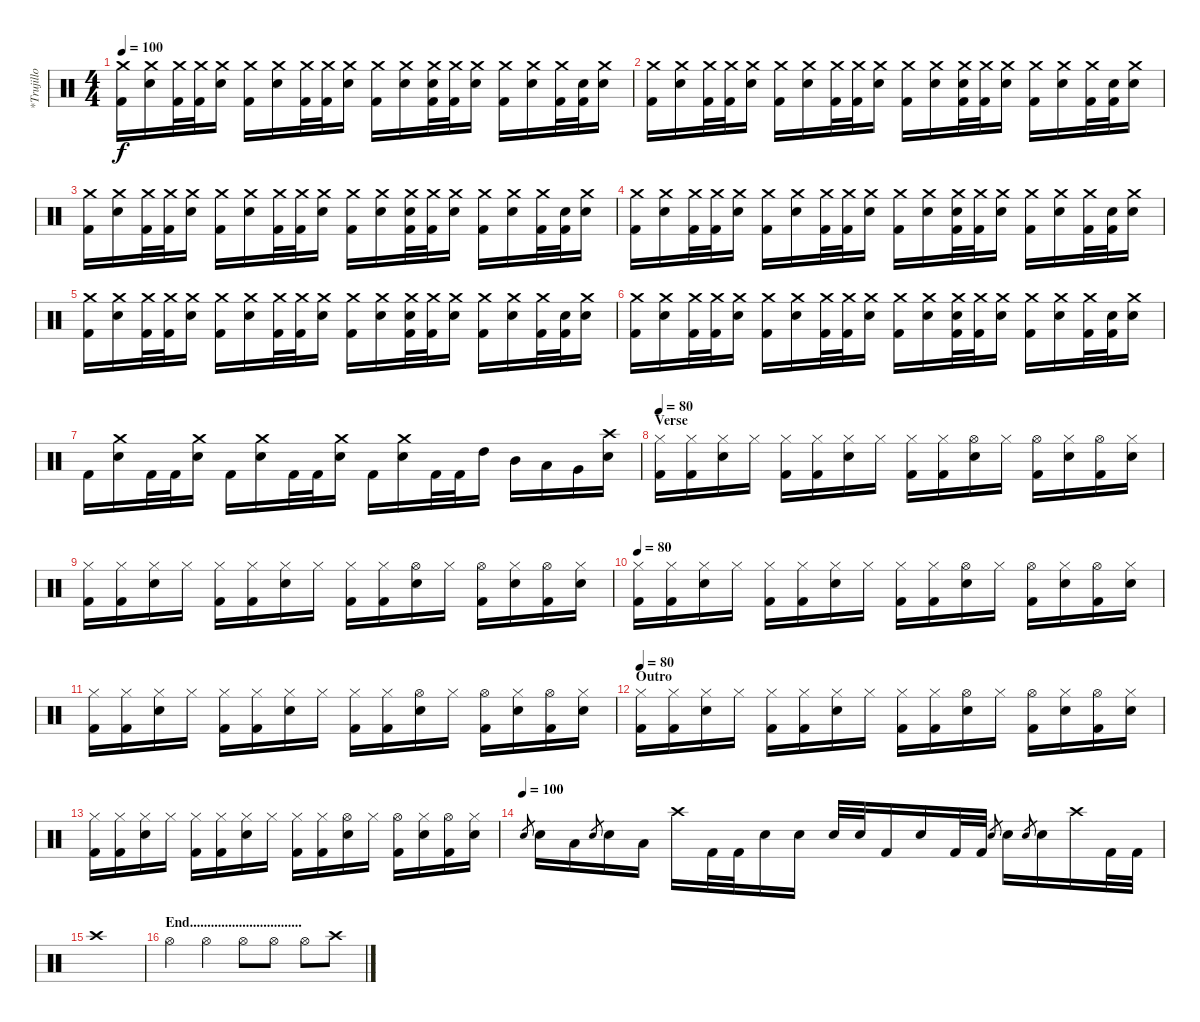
\track ("*Trujillo" "*Trujillo") {instrument percussion}
\staff {score}
\articulation defaults
\ts (4 4)
\tempo 100
\clef neutral
\ks c
("Crash medium (hit)"{x} "Kick (hit) 2").16{dy f} ("Crash medium (hit)" "Electric Snare (hit)").16 ("Crash medium (hit)"{x} "Kick (hit) 2").32 ("Crash medium (hit)"{x} "Kick (hit) 2").32 ("Crash medium (hit)" "Electric Snare (hit)").16 ("Crash medium (hit)"{x} "Kick (hit) 2").16 ("Crash medium (hit)" "Electric Snare (hit)").16 ("Crash medium (hit)"{x} "Kick (hit) 2").32 ("Crash medium (hit)"{x} "Kick (hit) 2").32 ("Crash medium (hit)" "Electric Snare (hit)").16 ("Crash medium (hit)"{x} "Kick (hit) 2").16 ("Crash medium (hit)" "Electric Snare (hit)").16 ("Snare (hit)"{x} "Crash medium (hit)"{x} "Kick (hit) 2").32 ("Crash medium (hit)"{x} "Kick (hit) 2").32 ("Crash medium (hit)" "Electric Snare (hit)").16 ("Crash medium (hit)"{x} "Kick (hit) 2").16 ("Crash medium (hit)" "Electric Snare (hit)").16 ("Crash medium (hit)"{x} "Kick (hit) 2").32 ("Snare (hit)"{x} "Kick (hit) 2").32 ("Crash medium (hit)" "Electric Snare (hit)").16 |
("Crash medium (hit)"{x} "Kick (hit) 2").16 ("Crash medium (hit)" "Electric Snare (hit)").16 ("Crash medium (hit)"{x} "Kick (hit) 2").32 ("Crash medium (hit)"{x} "Kick (hit) 2").32 ("Crash medium (hit)" "Electric Snare (hit)").16 ("Crash medium (hit)"{x} "Kick (hit) 2").16 ("Crash medium (hit)" "Electric Snare (hit)").16 ("Crash medium (hit)"{x} "Kick (hit) 2").32 ("Crash medium (hit)"{x} "Kick (hit) 2").32 ("Crash medium (hit)" "Electric Snare (hit)").16 ("Crash medium (hit)"{x} "Kick (hit) 2").16 ("Crash medium (hit)" "Electric Snare (hit)").16 ("Snare (hit)"{x} "Crash medium (hit)"{x} "Kick (hit) 2").32 ("Crash medium (hit)"{x} "Kick (hit) 2").32 ("Crash medium (hit)" "Electric Snare (hit)").16 ("Crash medium (hit)"{x} "Kick (hit) 2").16 ("Crash medium (hit)" "Electric Snare (hit)").16 ("Crash medium (hit)"{x} "Kick (hit) 2").32 ("Snare (hit)"{x} "Kick (hit) 2").32 ("Crash medium (hit)" "Electric Snare (hit)").16 |
("Crash medium (hit)"{x} "Kick (hit) 2").16 ("Crash medium (hit)" "Electric Snare (hit)").16 ("Crash medium (hit)"{x} "Kick (hit) 2").32 ("Crash medium (hit)"{x} "Kick (hit) 2").32 ("Crash medium (hit)" "Electric Snare (hit)").16 ("Crash medium (hit)"{x} "Kick (hit) 2").16 ("Crash medium (hit)" "Electric Snare (hit)").16 ("Crash medium (hit)"{x} "Kick (hit) 2").32 ("Crash medium (hit)"{x} "Kick (hit) 2").32 ("Crash medium (hit)" "Electric Snare (hit)").16 ("Crash medium (hit)"{x} "Kick (hit) 2").16 ("Crash medium (hit)" "Electric Snare (hit)").16 ("Snare (hit)"{x} "Crash medium (hit)"{x} "Kick (hit) 2").32 ("Crash medium (hit)"{x} "Kick (hit) 2").32 ("Crash medium (hit)" "Electric Snare (hit)").16 ("Crash medium (hit)"{x} "Kick (hit) 2").16 ("Crash medium (hit)" "Electric Snare (hit)").16 ("Crash medium (hit)"{x} "Kick (hit) 2").32 ("Snare (hit)"{x} "Kick (hit) 2").32 ("Crash medium (hit)" "Electric Snare (hit)").16 |
("Crash medium (hit)"{x} "Kick (hit) 2").16 ("Crash medium (hit)" "Electric Snare (hit)").16 ("Crash medium (hit)"{x} "Kick (hit) 2").32 ("Crash medium (hit)"{x} "Kick (hit) 2").32 ("Crash medium (hit)" "Electric Snare (hit)").16 ("Crash medium (hit)"{x} "Kick (hit) 2").16 ("Crash medium (hit)" "Electric Snare (hit)").16 ("Crash medium (hit)"{x} "Kick (hit) 2").32 ("Crash medium (hit)"{x} "Kick (hit) 2").32 ("Crash medium (hit)" "Electric Snare (hit)").16 ("Crash medium (hit)"{x} "Kick (hit) 2").16 ("Crash medium (hit)" "Electric Snare (hit)").16 ("Snare (hit)"{x} "Crash medium (hit)"{x} "Kick (hit) 2").32 ("Crash medium (hit)"{x} "Kick (hit) 2").32 ("Crash medium (hit)" "Electric Snare (hit)").16 ("Crash medium (hit)"{x} "Kick (hit) 2").16 ("Crash medium (hit)" "Electric Snare (hit)").16 ("Crash medium (hit)"{x} "Kick (hit) 2").32 ("Snare (hit)"{x} "Kick (hit) 2").32 ("Crash medium (hit)" "Electric Snare (hit)").16 |
("Crash medium (hit)"{x} "Kick (hit) 2").16 ("Crash medium (hit)" "Electric Snare (hit)").16 ("Crash medium (hit)"{x} "Kick (hit) 2").32 ("Crash medium (hit)"{x} "Kick (hit) 2").32 ("Crash medium (hit)" "Electric Snare (hit)").16 ("Crash medium (hit)"{x} "Kick (hit) 2").16 ("Crash medium (hit)" "Electric Snare (hit)").16 ("Crash medium (hit)"{x} "Kick (hit) 2").32 ("Crash medium (hit)"{x} "Kick (hit) 2").32 ("Crash medium (hit)" "Electric Snare (hit)").16 ("Crash medium (hit)"{x} "Kick (hit) 2").16 ("Crash medium (hit)" "Electric Snare (hit)").16 ("Snare (hit)"{x} "Crash medium (hit)"{x} "Kick (hit) 2").32 ("Crash medium (hit)"{x} "Kick (hit) 2").32 ("Crash medium (hit)" "Electric Snare (hit)").16 ("Crash medium (hit)"{x} "Kick (hit) 2").16 ("Crash medium (hit)" "Electric Snare (hit)").16 ("Crash medium (hit)"{x} "Kick (hit) 2").32 ("Snare (hit)"{x} "Kick (hit) 2").32 ("Crash medium (hit)" "Electric Snare (hit)").16 |
("Crash medium (hit)"{x} "Kick (hit) 2").16 ("Crash medium (hit)" "Electric Snare (hit)").16 ("Crash medium (hit)"{x} "Kick (hit) 2").32 ("Crash medium (hit)"{x} "Kick (hit) 2").32 ("Crash medium (hit)" "Electric Snare (hit)").16 ("Crash medium (hit)"{x} "Kick (hit) 2").16 ("Crash medium (hit)" "Electric Snare (hit)").16 ("Crash medium (hit)"{x} "Kick (hit) 2").32 ("Crash medium (hit)"{x} "Kick (hit) 2").32 ("Crash medium (hit)" "Electric Snare (hit)").16 ("Crash medium (hit)"{x} "Kick (hit) 2").16 ("Crash medium (hit)" "Electric Snare (hit)").16 ("Snare (hit)"{x} "Crash medium (hit)"{x} "Kick (hit) 2").32 ("Crash medium (hit)"{x} "Kick (hit) 2").32 ("Crash medium (hit)" "Electric Snare (hit)").16 ("Crash medium (hit)"{x} "Kick (hit) 2").16 ("Crash medium (hit)" "Electric Snare (hit)").16 ("Crash medium (hit)"{x} "Kick (hit) 2").32 ("Snare (hit)"{x} "Kick (hit) 2").32 ("Crash medium (hit)" "Electric Snare (hit)").16 |
"Kick (hit) 2".16 ("Crash medium (hit)" "Electric Snare (hit)").16 "Kick (hit) 2".32 "Kick (hit) 2".32 ("Crash medium (hit)" "Electric Snare (hit)").16 "Kick (hit) 2".16 ("Crash medium (hit)" "Electric Snare (hit)").16 "Kick (hit) 2".32 "Kick (hit) 2".32 ("Crash medium (hit)" "Electric Snare (hit)").16 "Kick (hit) 2".16 ("Crash medium (hit)" "Electric Snare (hit)").16 "Kick (hit) 2".32 "Kick (hit) 2".32 "High Tom (hit)".16 "Mid Tom (hit)".16 "Low Tom (hit)".16 "Very Low Tom (hit)".16 ("Crash high (hit)" "Electric Snare (hit)").16 |
\section ("" "Verse")
\tempo 80
("Hi-Hat (closed)" "Kick (hit) 2").16 ("Hi-Hat (closed)" "Kick (hit) 2").16 ("Hi-Hat (closed)" "Electric Snare (hit)").16 "Hi-Hat (closed)".16 ("Hi-Hat (closed)" "Kick (hit) 2").16 ("Hi-Hat (closed)" "Kick (hit) 2").16 ("Hi-Hat (closed)" "Electric Snare (hit)").16 "Hi-Hat (closed)".16 ("Hi-Hat (closed)" "Kick (hit) 2").16 ("Hi-Hat (closed)" "Kick (hit) 2").16 ("Hi-Hat (open)" "Electric Snare (hit)").16 "Hi-Hat (closed)".16 ("Hi-Hat (open)" "Kick (hit) 2").16 ("Hi-Hat (closed)" "Electric Snare (hit)").16 ("Hi-Hat (open)" "Kick (hit) 2").16 ("Hi-Hat (closed)" "Electric Snare (hit)").16 |
("Hi-Hat (closed)" "Kick (hit) 2").16 ("Hi-Hat (closed)" "Kick (hit) 2").16 ("Hi-Hat (closed)" "Electric Snare (hit)").16 "Hi-Hat (closed)".16 ("Hi-Hat (closed)" "Kick (hit) 2").16 ("Hi-Hat (closed)" "Kick (hit) 2").16 ("Hi-Hat (closed)" "Electric Snare (hit)").16 "Hi-Hat (closed)".16 ("Hi-Hat (closed)" "Kick (hit) 2").16 ("Hi-Hat (closed)" "Kick (hit) 2").16 ("Hi-Hat (open)" "Electric Snare (hit)").16 "Hi-Hat (closed)".16 ("Hi-Hat (open)" "Kick (hit) 2").16 ("Hi-Hat (closed)" "Electric Snare (hit)").16 ("Hi-Hat (open)" "Kick (hit) 2").16 ("Hi-Hat (closed)" "Electric Snare (hit)").16 |
\tempo 80
("Hi-Hat (closed)" "Kick (hit) 2").16 ("Hi-Hat (closed)" "Kick (hit) 2").16 ("Hi-Hat (closed)" "Electric Snare (hit)").16 "Hi-Hat (closed)".16 ("Hi-Hat (closed)" "Kick (hit) 2").16 ("Hi-Hat (closed)" "Kick (hit) 2").16 ("Hi-Hat (closed)" "Electric Snare (hit)").16 "Hi-Hat (closed)".16 ("Hi-Hat (closed)" "Kick (hit) 2").16 ("Hi-Hat (closed)" "Kick (hit) 2").16 ("Hi-Hat (open)" "Electric Snare (hit)").16 "Hi-Hat (closed)".16 ("Hi-Hat (open)" "Kick (hit) 2").16 ("Hi-Hat (closed)" "Electric Snare (hit)").16 ("Hi-Hat (open)" "Kick (hit) 2").16 ("Hi-Hat (closed)" "Electric Snare (hit)").16 |
("Hi-Hat (closed)" "Kick (hit) 2").16 ("Hi-Hat (closed)" "Kick (hit) 2").16 ("Hi-Hat (closed)" "Electric Snare (hit)").16 "Hi-Hat (closed)".16 ("Hi-Hat (closed)" "Kick (hit) 2").16 ("Hi-Hat (closed)" "Kick (hit) 2").16 ("Hi-Hat (closed)" "Electric Snare (hit)").16 "Hi-Hat (closed)".16 ("Hi-Hat (closed)" "Kick (hit) 2").16 ("Hi-Hat (closed)" "Kick (hit) 2").16 ("Hi-Hat (open)" "Electric Snare (hit)").16 "Hi-Hat (closed)".16 ("Hi-Hat (open)" "Kick (hit) 2").16 ("Hi-Hat (closed)" "Electric Snare (hit)").16 ("Hi-Hat (open)" "Kick (hit) 2").16 ("Hi-Hat (closed)" "Electric Snare (hit)").16 |
\section ("" "Outro")
\tempo 80
("Hi-Hat (closed)" "Kick (hit) 2").16 ("Hi-Hat (closed)" "Kick (hit) 2").16 ("Hi-Hat (closed)" "Electric Snare (hit)").16 "Hi-Hat (closed)".16 ("Hi-Hat (closed)" "Kick (hit) 2").16 ("Hi-Hat (closed)" "Kick (hit) 2").16 ("Hi-Hat (closed)" "Electric Snare (hit)").16 "Hi-Hat (closed)".16 ("Hi-Hat (closed)" "Kick (hit) 2").16 ("Hi-Hat (closed)" "Kick (hit) 2").16 ("Hi-Hat (open)" "Electric Snare (hit)").16 "Hi-Hat (closed)".16 ("Hi-Hat (open)" "Kick (hit) 2").16 ("Hi-Hat (closed)" "Electric Snare (hit)").16 ("Hi-Hat (open)" "Kick (hit) 2").16 ("Hi-Hat (closed)" "Electric Snare (hit)").16 |
("Hi-Hat (closed)" "Kick (hit) 2").16 ("Hi-Hat (closed)" "Kick (hit) 2").16 ("Hi-Hat (closed)" "Electric Snare (hit)").16 "Hi-Hat (closed)".16 ("Hi-Hat (closed)" "Kick (hit) 2").16 ("Hi-Hat (closed)" "Kick (hit) 2").16 ("Hi-Hat (closed)" "Electric Snare (hit)").16 "Hi-Hat (closed)".16 ("Hi-Hat (closed)" "Kick (hit) 2").16 ("Hi-Hat (closed)" "Kick (hit) 2").16 ("Hi-Hat (open)" "Electric Snare (hit)").16 "Hi-Hat (closed)".16 ("Hi-Hat (open)" "Kick (hit) 2").16 ("Hi-Hat (closed)" "Electric Snare (hit)").16 ("Hi-Hat (open)" "Kick (hit) 2").16 ("Hi-Hat (closed)" "Electric Snare (hit)").16 |
\tempo (100)
"Electric Snare (hit)".8{gr} "Electric Snare (hit)".16 "Low Tom (hit)".16 "Electric Snare (hit)".8{gr} "Electric Snare (hit)".16 "Low Tom (hit)".16 "Crash high (hit)".16 "Kick (hit) 2".32 "Kick (hit) 2".32 "Electric Snare (hit)".16 "Electric Snare (hit)".16 "Electric Snare (hit)".32 "Electric Snare (hit)".32 "Kick (hit) 2".16 "Electric Snare (hit)".16 "Kick (hit) 2".32 "Kick (hit) 2".32 "Electric Snare (hit)".8{gr} "Electric Snare (hit)".16 "Electric Snare (hit)".8{gr} "Electric Snare (hit)".16 "Crash high (hit)".16 "Kick (hit) 2".32 "Kick (hit) 2".32 |
"Crash high (hit)".1 |
\section ("" "End................................")
"Hi-Hat (open)".4 "Hi-Hat (open)".4 "Hi-Hat (open)".8 "Hi-Hat (open)".8 "Hi-Hat (open)".8 "Crash high (hit)".8
